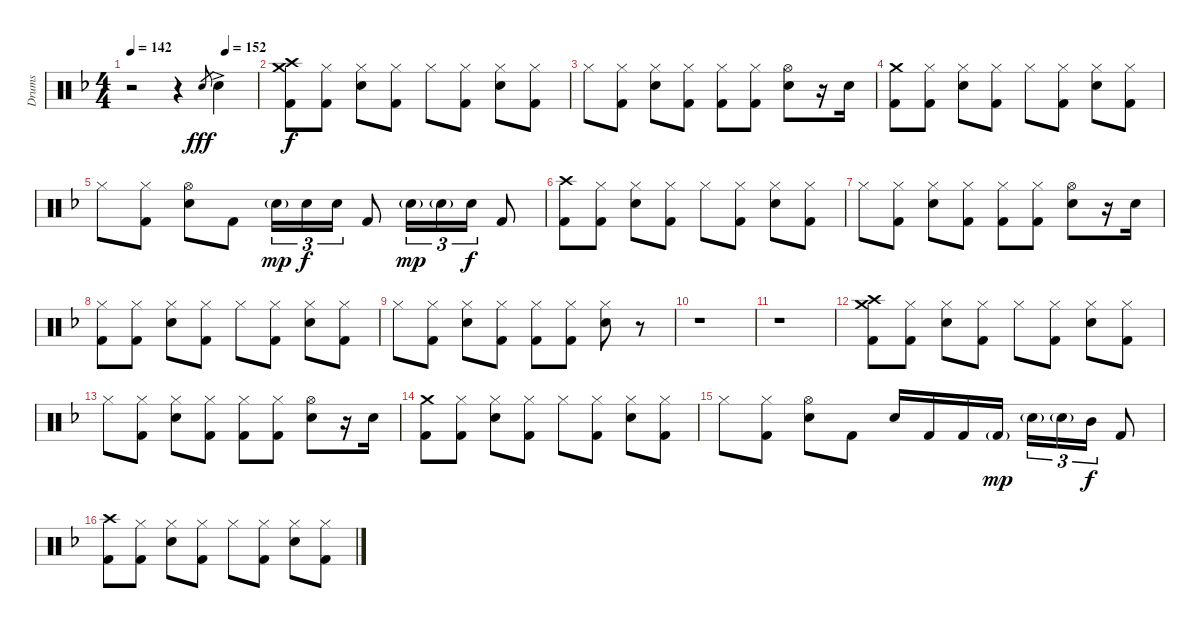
\track ("Drums" "Drums") {instrument percussion}
\staff {score}
\articulation defaults
\ts (4 4)
\tempo 142
\tempo (152 0.75)
\clef neutral
\ks dminor
r.2{dy mp} r.4 "Snare (hit) 2".8{gr dy fff} "Snare (hit) 2"{ac}.4 |
("Crash high (hit)" "Crash medium (hit)" "Kick (hit) 2").8{dy f} ("Hi-Hat (closed)" "Kick (hit) 2").8 ("Hi-Hat (closed)" "Snare (hit) 2").8 ("Hi-Hat (closed)" "Kick (hit) 2").8 "Hi-Hat (closed)".8 ("Hi-Hat (closed)" "Kick (hit) 2").8 ("Hi-Hat (closed)" "Snare (hit) 2").8 ("Hi-Hat (closed)" "Kick (hit) 2").8 |
"Hi-Hat (closed)".8 ("Hi-Hat (closed)" "Kick (hit) 2").8 ("Hi-Hat (closed)" "Snare (hit) 2").8 ("Hi-Hat (closed)" "Kick (hit) 2").8 ("Hi-Hat (closed)" "Kick (hit) 2").8 ("Hi-Hat (closed)" "Kick (hit) 2").8 ("Hi-Hat (open)" "Snare (hit) 2").8 r.16 "Snare (hit) 2".16 |
("Crash medium (hit)" "Kick (hit) 2").8 ("Hi-Hat (closed)" "Kick (hit) 2").8 ("Hi-Hat (closed)" "Snare (hit) 2").8 ("Hi-Hat (closed)" "Kick (hit) 2").8 "Hi-Hat (closed)".8 ("Hi-Hat (closed)" "Kick (hit) 2").8 ("Hi-Hat (closed)" "Snare (hit) 2").8 ("Hi-Hat (closed)" "Kick (hit) 2").8 |
"Hi-Hat (closed)".8 ("Hi-Hat (closed)" "Kick (hit) 2").8 ("Hi-Hat (open)" "Snare (hit) 2").8 "Kick (hit) 2".8 "Snare (hit) 2"{g}.16{tu (3 2) dy mp} "Snare (hit) 2".16{tu (3 2) dy f} "Snare (hit) 2".16{tu (3 2)} "Kick (hit) 2".8 "Snare (hit) 2"{g}.16{tu (3 2) dy mp} "Snare (hit) 2"{g}.16{tu (3 2)} "Snare (hit) 2".16{tu (3 2) dy f} "Kick (hit) 2".8 |
("Crash high (hit)" "Kick (hit) 2").8 ("Hi-Hat (closed)" "Kick (hit) 2").8 ("Hi-Hat (closed)" "Snare (hit) 2").8 ("Hi-Hat (closed)" "Kick (hit) 2").8 "Hi-Hat (closed)".8 ("Hi-Hat (closed)" "Kick (hit) 2").8 ("Hi-Hat (closed)" "Snare (hit) 2").8 ("Hi-Hat (closed)" "Kick (hit) 2").8 |
"Hi-Hat (closed)".8 ("Hi-Hat (closed)" "Kick (hit) 2").8 ("Hi-Hat (closed)" "Snare (hit) 2").8 ("Hi-Hat (closed)" "Kick (hit) 2").8 ("Hi-Hat (closed)" "Kick (hit) 2").8 ("Hi-Hat (closed)" "Kick (hit) 2").8 ("Hi-Hat (open)" "Snare (hit) 2").8 r.16 "Snare (hit) 2".16 |
("Hi-Hat (closed)" "Kick (hit) 2").8 ("Hi-Hat (closed)" "Kick (hit) 2").8 ("Hi-Hat (closed)" "Snare (hit) 2").8 ("Hi-Hat (closed)" "Kick (hit) 2").8 "Hi-Hat (closed)".8 ("Hi-Hat (closed)" "Kick (hit) 2").8 ("Hi-Hat (closed)" "Snare (hit) 2").8 ("Hi-Hat (closed)" "Kick (hit) 2").8 |
"Hi-Hat (closed)".8 ("Hi-Hat (closed)" "Kick (hit) 2").8 ("Hi-Hat (closed)" "Snare (hit) 2").8 ("Hi-Hat (closed)" "Kick (hit) 2").8 ("Hi-Hat (closed)" "Kick (hit) 2").8 ("Hi-Hat (closed)" "Kick (hit) 2").8 ("Hi-Hat (closed)" "Snare (hit) 2").8 r.8 |
r.1 |
r.1 |
("Crash high (hit)" "Crash medium (hit)" "Kick (hit) 2").8 ("Hi-Hat (closed)" "Kick (hit) 2").8 ("Hi-Hat (closed)" "Snare (hit) 2").8 ("Hi-Hat (closed)" "Kick (hit) 2").8 "Hi-Hat (closed)".8 ("Hi-Hat (closed)" "Kick (hit) 2").8 ("Hi-Hat (closed)" "Snare (hit) 2").8 ("Hi-Hat (closed)" "Kick (hit) 2").8 |
"Hi-Hat (closed)".8 ("Hi-Hat (closed)" "Kick (hit) 2").8 ("Hi-Hat (closed)" "Snare (hit) 2").8 ("Hi-Hat (closed)" "Kick (hit) 2").8 ("Hi-Hat (closed)" "Kick (hit) 2").8 ("Hi-Hat (closed)" "Kick (hit) 2").8 ("Hi-Hat (open)" "Snare (hit) 2").8 r.16 "Snare (hit) 2".16 |
("Crash medium (hit)" "Kick (hit) 2").8 ("Hi-Hat (closed)" "Kick (hit) 2").8 ("Hi-Hat (closed)" "Snare (hit) 2").8 ("Hi-Hat (closed)" "Kick (hit) 2").8 "Hi-Hat (closed)".8 ("Hi-Hat (closed)" "Kick (hit) 2").8 ("Hi-Hat (closed)" "Snare (hit) 2").8 ("Hi-Hat (closed)" "Kick (hit) 2").8 |
"Hi-Hat (closed)".8 ("Hi-Hat (closed)" "Kick (hit) 2").8 ("Hi-Hat (open)" "Snare (hit) 2").8 "Kick (hit) 2".8 "Snare (hit) 2".16 "Kick (hit) 2".16 "Kick (hit) 2".16 "Kick (hit) 2"{g}.16{dy mp} "Snare (hit) 2"{g}.16{tu (3 2)} "Snare (hit) 2"{g}.16{tu (3 2)} "Mid Tom (hit)".16{tu (3 2) dy f} "Kick (hit) 2".8 |
("Crash high (hit)" "Kick (hit) 2").8 ("Hi-Hat (closed)" "Kick (hit) 2").8 ("Hi-Hat (closed)" "Snare (hit) 2").8 ("Hi-Hat (closed)" "Kick (hit) 2").8 "Hi-Hat (closed)".8 ("Hi-Hat (closed)" "Kick (hit) 2").8 ("Hi-Hat (closed)" "Snare (hit) 2").8 ("Hi-Hat (closed)" "Kick (hit) 2").8
